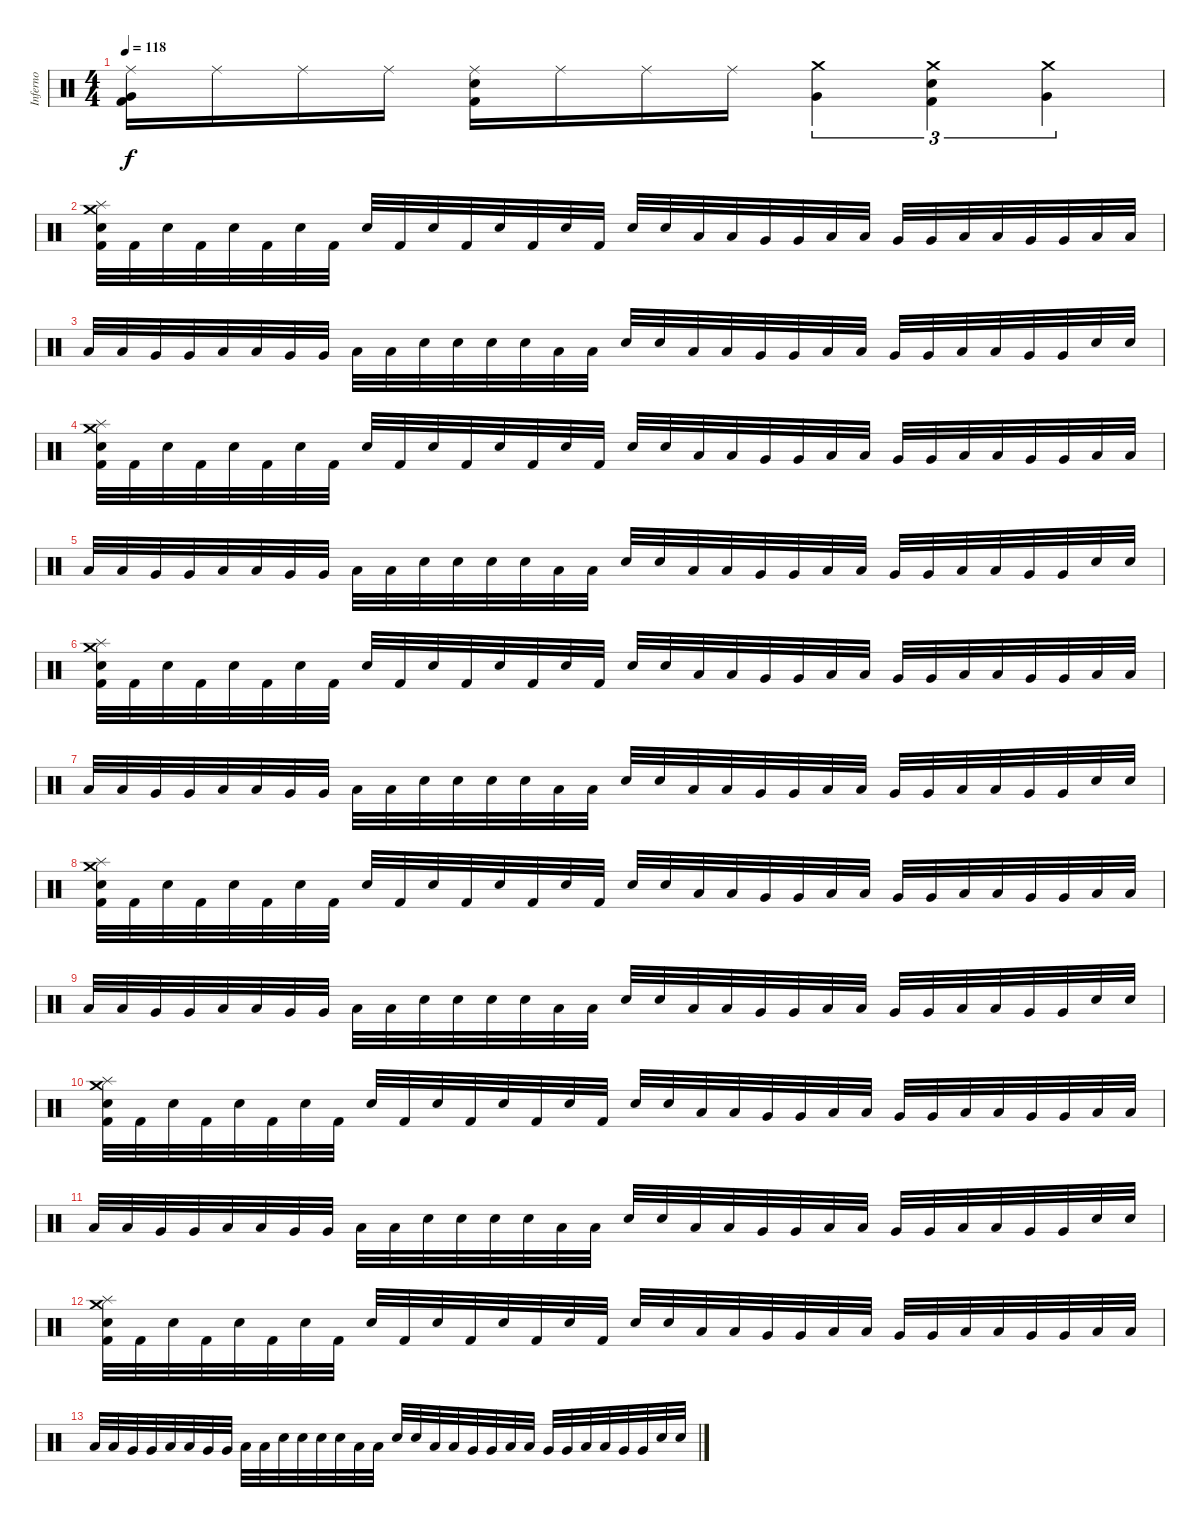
\track ("Inferno" "Inferno") {instrument percussion}
\staff {score}
\articulation defaults
\ts (4 4)
\tempo 118
\clef neutral
\ks c
("Ride (middle)" "Very Low Tom (hit)" "Kick (hit) 2").16{dy f} "Ride (middle)".16 "Ride (middle)".16 "Ride (middle)".16 ("Ride (middle)" "Electric Snare (hit)" "Kick (hit) 2").16 "Ride (middle)".16 "Ride (middle)".16 "Ride (middle)".16 ("Crash medium (hit)" "Very Low Tom (hit)").4{tu (3 2)} ("Crash medium (hit)" "Electric Snare (hit)" "Kick (hit) 2").4{tu (3 2)} ("Crash medium (hit)" "Very Low Tom (hit)").4{tu (3 2)} |
("Crash medium (hit)" "Splash (hit)" "Electric Snare (hit)" "Kick (hit) 2").32 "Kick (hit) 2".32 "Electric Snare (hit)".32 "Kick (hit) 2".32 "Electric Snare (hit)".32 "Kick (hit) 2".32 "Electric Snare (hit)".32 "Kick (hit) 2".32 "Electric Snare (hit)".32 "Kick (hit) 2".32 "Electric Snare (hit)".32 "Kick (hit) 2".32 "Electric Snare (hit)".32 "Kick (hit) 2".32 "Electric Snare (hit)".32 "Kick (hit) 2".32 "Electric Snare (hit)".32 "Electric Snare (hit)".32 "Low Tom (hit)".32 "Low Tom (hit)".32 "Very Low Tom (hit)".32 "Very Low Tom (hit)".32 "Low Floor Tom (hit)".32 "Low Floor Tom (hit)".32 "Very Low Tom (hit)".32 "Very Low Tom (hit)".32 "Low Tom (hit)".32 "Low Tom (hit)".32 "Very Low Tom (hit)".32 "Very Low Tom (hit)".32 "Low Floor Tom (hit)".32 "Low Floor Tom (hit)".32 |
"Low Floor Tom (hit)".32 "Low Floor Tom (hit)".32 "Very Low Tom (hit)".32 "Very Low Tom (hit)".32 "Low Tom (hit)".32 "Low Tom (hit)".32 "Very Low Tom (hit)".32 "Very Low Tom (hit)".32 "Low Floor Tom (hit)".32 "Low Floor Tom (hit)".32 "Electric Snare (hit)".32 "Electric Snare (hit)".32 "Electric Snare (hit)".32 "Electric Snare (hit)".32 "Low Tom (hit)".32 "Low Tom (hit)".32 "Electric Snare (hit)".32 "Electric Snare (hit)".32 "Low Tom (hit)".32 "Low Tom (hit)".32 "Very Low Tom (hit)".32 "Very Low Tom (hit)".32 "Low Floor Tom (hit)".32 "Low Floor Tom (hit)".32 "Very Low Tom (hit)".32 "Very Low Tom (hit)".32 "Low Tom (hit)".32 "Low Tom (hit)".32 "Very Low Tom (hit)".32 "Very Low Tom (hit)".32 "Electric Snare (hit)".32 "Electric Snare (hit)".32 |
("Crash medium (hit)" "Splash (hit)" "Electric Snare (hit)" "Kick (hit) 2").32 "Kick (hit) 2".32 "Electric Snare (hit)".32 "Kick (hit) 2".32 "Electric Snare (hit)".32 "Kick (hit) 2".32 "Electric Snare (hit)".32 "Kick (hit) 2".32 "Electric Snare (hit)".32 "Kick (hit) 2".32 "Electric Snare (hit)".32 "Kick (hit) 2".32 "Electric Snare (hit)".32 "Kick (hit) 2".32 "Electric Snare (hit)".32 "Kick (hit) 2".32 "Electric Snare (hit)".32 "Electric Snare (hit)".32 "Low Tom (hit)".32 "Low Tom (hit)".32 "Very Low Tom (hit)".32 "Very Low Tom (hit)".32 "Low Floor Tom (hit)".32 "Low Floor Tom (hit)".32 "Very Low Tom (hit)".32 "Very Low Tom (hit)".32 "Low Tom (hit)".32 "Low Tom (hit)".32 "Very Low Tom (hit)".32 "Very Low Tom (hit)".32 "Low Floor Tom (hit)".32 "Low Floor Tom (hit)".32 |
"Low Floor Tom (hit)".32 "Low Floor Tom (hit)".32 "Very Low Tom (hit)".32 "Very Low Tom (hit)".32 "Low Tom (hit)".32 "Low Tom (hit)".32 "Very Low Tom (hit)".32 "Very Low Tom (hit)".32 "Low Floor Tom (hit)".32 "Low Floor Tom (hit)".32 "Electric Snare (hit)".32 "Electric Snare (hit)".32 "Electric Snare (hit)".32 "Electric Snare (hit)".32 "Low Tom (hit)".32 "Low Tom (hit)".32 "Electric Snare (hit)".32 "Electric Snare (hit)".32 "Low Tom (hit)".32 "Low Tom (hit)".32 "Very Low Tom (hit)".32 "Very Low Tom (hit)".32 "Low Floor Tom (hit)".32 "Low Floor Tom (hit)".32 "Very Low Tom (hit)".32 "Very Low Tom (hit)".32 "Low Tom (hit)".32 "Low Tom (hit)".32 "Very Low Tom (hit)".32 "Very Low Tom (hit)".32 "Electric Snare (hit)".32 "Electric Snare (hit)".32 |
("Crash medium (hit)" "Splash (hit)" "Electric Snare (hit)" "Kick (hit) 2").32 "Kick (hit) 2".32 "Electric Snare (hit)".32 "Kick (hit) 2".32 "Electric Snare (hit)".32 "Kick (hit) 2".32 "Electric Snare (hit)".32 "Kick (hit) 2".32 "Electric Snare (hit)".32 "Kick (hit) 2".32 "Electric Snare (hit)".32 "Kick (hit) 2".32 "Electric Snare (hit)".32 "Kick (hit) 2".32 "Electric Snare (hit)".32 "Kick (hit) 2".32 "Electric Snare (hit)".32 "Electric Snare (hit)".32 "Low Tom (hit)".32 "Low Tom (hit)".32 "Very Low Tom (hit)".32 "Very Low Tom (hit)".32 "Low Floor Tom (hit)".32 "Low Floor Tom (hit)".32 "Very Low Tom (hit)".32 "Very Low Tom (hit)".32 "Low Tom (hit)".32 "Low Tom (hit)".32 "Very Low Tom (hit)".32 "Very Low Tom (hit)".32 "Low Floor Tom (hit)".32 "Low Floor Tom (hit)".32 |
"Low Floor Tom (hit)".32 "Low Floor Tom (hit)".32 "Very Low Tom (hit)".32 "Very Low Tom (hit)".32 "Low Tom (hit)".32 "Low Tom (hit)".32 "Very Low Tom (hit)".32 "Very Low Tom (hit)".32 "Low Floor Tom (hit)".32 "Low Floor Tom (hit)".32 "Electric Snare (hit)".32 "Electric Snare (hit)".32 "Electric Snare (hit)".32 "Electric Snare (hit)".32 "Low Tom (hit)".32 "Low Tom (hit)".32 "Electric Snare (hit)".32 "Electric Snare (hit)".32 "Low Tom (hit)".32 "Low Tom (hit)".32 "Very Low Tom (hit)".32 "Very Low Tom (hit)".32 "Low Floor Tom (hit)".32 "Low Floor Tom (hit)".32 "Very Low Tom (hit)".32 "Very Low Tom (hit)".32 "Low Tom (hit)".32 "Low Tom (hit)".32 "Very Low Tom (hit)".32 "Very Low Tom (hit)".32 "Electric Snare (hit)".32 "Electric Snare (hit)".32 |
("Crash medium (hit)" "Splash (hit)" "Electric Snare (hit)" "Kick (hit) 2").32 "Kick (hit) 2".32 "Electric Snare (hit)".32 "Kick (hit) 2".32 "Electric Snare (hit)".32 "Kick (hit) 2".32 "Electric Snare (hit)".32 "Kick (hit) 2".32 "Electric Snare (hit)".32 "Kick (hit) 2".32 "Electric Snare (hit)".32 "Kick (hit) 2".32 "Electric Snare (hit)".32 "Kick (hit) 2".32 "Electric Snare (hit)".32 "Kick (hit) 2".32 "Electric Snare (hit)".32 "Electric Snare (hit)".32 "Low Tom (hit)".32 "Low Tom (hit)".32 "Very Low Tom (hit)".32 "Very Low Tom (hit)".32 "Low Floor Tom (hit)".32 "Low Floor Tom (hit)".32 "Very Low Tom (hit)".32 "Very Low Tom (hit)".32 "Low Tom (hit)".32 "Low Tom (hit)".32 "Very Low Tom (hit)".32 "Very Low Tom (hit)".32 "Low Floor Tom (hit)".32 "Low Floor Tom (hit)".32 |
"Low Floor Tom (hit)".32 "Low Floor Tom (hit)".32 "Very Low Tom (hit)".32 "Very Low Tom (hit)".32 "Low Tom (hit)".32 "Low Tom (hit)".32 "Very Low Tom (hit)".32 "Very Low Tom (hit)".32 "Low Floor Tom (hit)".32 "Low Floor Tom (hit)".32 "Electric Snare (hit)".32 "Electric Snare (hit)".32 "Electric Snare (hit)".32 "Electric Snare (hit)".32 "Low Tom (hit)".32 "Low Tom (hit)".32 "Electric Snare (hit)".32 "Electric Snare (hit)".32 "Low Tom (hit)".32 "Low Tom (hit)".32 "Very Low Tom (hit)".32 "Very Low Tom (hit)".32 "Low Floor Tom (hit)".32 "Low Floor Tom (hit)".32 "Very Low Tom (hit)".32 "Very Low Tom (hit)".32 "Low Tom (hit)".32 "Low Tom (hit)".32 "Very Low Tom (hit)".32 "Very Low Tom (hit)".32 "Electric Snare (hit)".32 "Electric Snare (hit)".32 |
("Crash medium (hit)" "Splash (hit)" "Electric Snare (hit)" "Kick (hit) 2").32 "Kick (hit) 2".32 "Electric Snare (hit)".32 "Kick (hit) 2".32 "Electric Snare (hit)".32 "Kick (hit) 2".32 "Electric Snare (hit)".32 "Kick (hit) 2".32 "Electric Snare (hit)".32 "Kick (hit) 2".32 "Electric Snare (hit)".32 "Kick (hit) 2".32 "Electric Snare (hit)".32 "Kick (hit) 2".32 "Electric Snare (hit)".32 "Kick (hit) 2".32 "Electric Snare (hit)".32 "Electric Snare (hit)".32 "Low Tom (hit)".32 "Low Tom (hit)".32 "Very Low Tom (hit)".32 "Very Low Tom (hit)".32 "Low Floor Tom (hit)".32 "Low Floor Tom (hit)".32 "Very Low Tom (hit)".32 "Very Low Tom (hit)".32 "Low Tom (hit)".32 "Low Tom (hit)".32 "Very Low Tom (hit)".32 "Very Low Tom (hit)".32 "Low Floor Tom (hit)".32 "Low Floor Tom (hit)".32 |
"Low Floor Tom (hit)".32 "Low Floor Tom (hit)".32 "Very Low Tom (hit)".32 "Very Low Tom (hit)".32 "Low Tom (hit)".32 "Low Tom (hit)".32 "Very Low Tom (hit)".32 "Very Low Tom (hit)".32 "Low Floor Tom (hit)".32 "Low Floor Tom (hit)".32 "Electric Snare (hit)".32 "Electric Snare (hit)".32 "Electric Snare (hit)".32 "Electric Snare (hit)".32 "Low Tom (hit)".32 "Low Tom (hit)".32 "Electric Snare (hit)".32 "Electric Snare (hit)".32 "Low Tom (hit)".32 "Low Tom (hit)".32 "Very Low Tom (hit)".32 "Very Low Tom (hit)".32 "Low Floor Tom (hit)".32 "Low Floor Tom (hit)".32 "Very Low Tom (hit)".32 "Very Low Tom (hit)".32 "Low Tom (hit)".32 "Low Tom (hit)".32 "Very Low Tom (hit)".32 "Very Low Tom (hit)".32 "Electric Snare (hit)".32 "Electric Snare (hit)".32 |
("Crash medium (hit)" "Splash (hit)" "Electric Snare (hit)" "Kick (hit) 2").32 "Kick (hit) 2".32 "Electric Snare (hit)".32 "Kick (hit) 2".32 "Electric Snare (hit)".32 "Kick (hit) 2".32 "Electric Snare (hit)".32 "Kick (hit) 2".32 "Electric Snare (hit)".32 "Kick (hit) 2".32 "Electric Snare (hit)".32 "Kick (hit) 2".32 "Electric Snare (hit)".32 "Kick (hit) 2".32 "Electric Snare (hit)".32 "Kick (hit) 2".32 "Electric Snare (hit)".32 "Electric Snare (hit)".32 "Low Tom (hit)".32 "Low Tom (hit)".32 "Very Low Tom (hit)".32 "Very Low Tom (hit)".32 "Low Floor Tom (hit)".32 "Low Floor Tom (hit)".32 "Very Low Tom (hit)".32 "Very Low Tom (hit)".32 "Low Tom (hit)".32 "Low Tom (hit)".32 "Very Low Tom (hit)".32 "Very Low Tom (hit)".32 "Low Floor Tom (hit)".32 "Low Floor Tom (hit)".32 |
"Low Floor Tom (hit)".32 "Low Floor Tom (hit)".32 "Very Low Tom (hit)".32 "Very Low Tom (hit)".32 "Low Tom (hit)".32 "Low Tom (hit)".32 "Very Low Tom (hit)".32 "Very Low Tom (hit)".32 "Low Floor Tom (hit)".32 "Low Floor Tom (hit)".32 "Electric Snare (hit)".32 "Electric Snare (hit)".32 "Electric Snare (hit)".32 "Electric Snare (hit)".32 "Low Tom (hit)".32 "Low Tom (hit)".32 "Electric Snare (hit)".32 "Electric Snare (hit)".32 "Low Tom (hit)".32 "Low Tom (hit)".32 "Very Low Tom (hit)".32 "Very Low Tom (hit)".32 "Low Floor Tom (hit)".32 "Low Floor Tom (hit)".32 "Very Low Tom (hit)".32 "Very Low Tom (hit)".32 "Low Tom (hit)".32 "Low Tom (hit)".32 "Very Low Tom (hit)".32 "Very Low Tom (hit)".32 "Electric Snare (hit)".32 "Electric Snare (hit)".32
